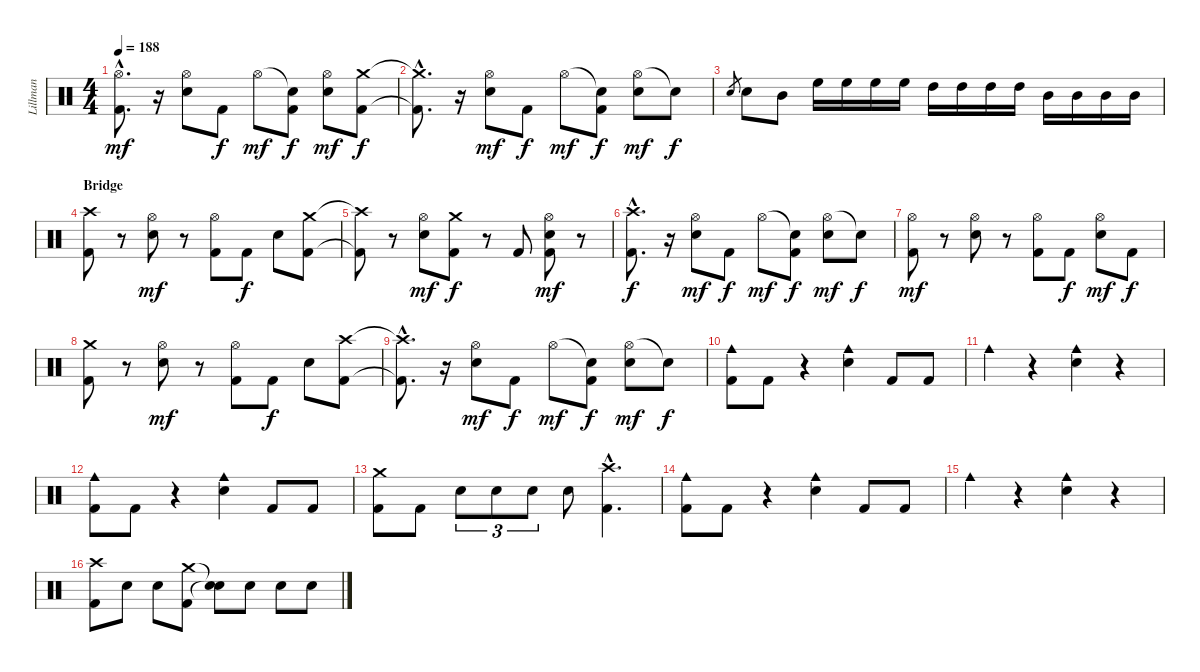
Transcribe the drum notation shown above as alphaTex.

\track ("Lillman" "Lillman") {instrument percussion}
\staff {score}
\articulation defaults
\ts (4 4)
\tempo 188
\clef neutral
\ks c
("Hi-Hat (open)"{hac} "Kick (hit) 2"{hac}).8{d dy mf} r.16 ("Hi-Hat (open)" "Snare (hit) 2").8 "Kick (hit) 2".8{dy f} "Hi-Hat (open)".8{dy mf} ("Snare (hit)"{t} "Kick (hit) 2").8{dy f} ("Hi-Hat (open)" "Snare (hit) 2").8{dy mf} ("Crash medium (hit)" "Kick (hit) 2").8{dy f} |
("Crash medium (hit)"{hac t} "Kick (hit) 2"{hac t}).8{d} r.16 ("Hi-Hat (open)" "Snare (hit) 2").8{dy mf} "Kick (hit) 2".8{dy f} "Hi-Hat (open)".8{dy mf} ("Snare (hit)"{t} "Kick (hit) 2").8{dy f} ("Hi-Hat (open)" "Snare (hit) 2").8{dy mf} "Snare (hit)"{t}.8{dy f} |
"Snare (hit) 2".8{gr} "Snare (hit) 2".8 "Mid Tom (hit)".8 "High Floor Tom (hit)".16 "High Floor Tom (hit)".16 "High Floor Tom (hit)".16 "High Floor Tom (hit)".16 "High Tom (hit)".16 "High Tom (hit)".16 "High Tom (hit)".16 "High Tom (hit)".16 "Mid Tom (hit)".16 "Mid Tom (hit)".16 "Mid Tom (hit)".16 "Mid Tom (hit)".16 |
\section ("" "Bridge")
("Crash high (hit)" "Kick (hit) 2").8 r.8 ("Hi-Hat (open)" "Snare (hit) 2").8{dy mf} r.8 ("Hi-Hat (open)" "Kick (hit) 2").8 "Kick (hit) 2".8{dy f} "Snare (hit) 2".8 ("Crash medium (hit)" "Kick (hit) 2").8 |
("Crash high (hit)"{t} "Kick (hit) 2"{t}).8 r.8 ("Hi-Hat (open)" "Snare (hit) 2").8{dy mf} ("Crash medium (hit)" "Kick (hit) 2").8{dy f} r.8 "Kick (hit) 2".8 ("Hi-Hat (open)" "Snare (hit) 2" "Kick (hit) 2").8{dy mf} r.8 |
("Crash high (hit)"{hac} "Kick (hit) 2"{hac}).8{d dy f} r.16 ("Hi-Hat (open)" "Snare (hit) 2").8{dy mf} "Kick (hit) 2".8{dy f} "Hi-Hat (open)".8{dy mf} ("Snare (hit)"{t} "Kick (hit) 2").8{dy f} ("Hi-Hat (open)" "Snare (hit) 2").8{dy mf} "Snare (hit)"{t}.8{dy f} |
("Hi-Hat (open)" "Kick (hit) 2").8{dy mf} r.8 ("Hi-Hat (open)" "Snare (hit) 2").8 r.8 ("Hi-Hat (open)" "Kick (hit) 2").8 "Kick (hit) 2".8{dy f} ("Hi-Hat (open)" "Snare (hit) 2").8{dy mf} "Kick (hit) 2".8{dy f} |
("Crash medium (hit)" "Kick (hit) 2").8 r.8 ("Hi-Hat (open)" "Snare (hit) 2").8{dy mf} r.8 ("Hi-Hat (open)" "Kick (hit) 2").8 "Kick (hit) 2".8{dy f} "Snare (hit) 2".8 ("Crash high (hit)" "Kick (hit) 2").8 |
("Crash high (hit)"{hac t} "Kick (hit) 2"{hac t}).8{d} r.16 ("Hi-Hat (open)" "Snare (hit) 2").8{dy mf} "Kick (hit) 2".8{dy f} "Hi-Hat (open)".8{dy mf} ("Snare (hit)"{t} "Kick (hit) 2").8{dy f} ("Hi-Hat (open)" "Snare (hit) 2").8{dy mf} "Snare (hit)"{t}.8{dy f} |
("Cowbell medium (hit)" "Kick (hit) 2").8 "Kick (hit) 2".8 r.4 ("Cowbell medium (hit)" "Snare (hit) 2").4 "Kick (hit) 2".8 "Kick (hit) 2".8 |
"Cowbell medium (hit)".4 r.4 ("Cowbell medium (hit)" "Snare (hit) 2").4 r.4 |
("Cowbell medium (hit)" "Kick (hit) 2").8 "Kick (hit) 2".8 r.4 ("Cowbell medium (hit)" "Snare (hit) 2").4 "Kick (hit) 2".8 "Kick (hit) 2".8 |
("Crash medium (hit)" "Kick (hit) 2").8 "Kick (hit) 2".8 "Snare (hit) 2".8{tu (3 2)} "Snare (hit) 2".8{tu (3 2)} "Snare (hit) 2".8{tu (3 2)} "Snare (hit) 2".8 ("Crash high (hit)"{hac} "Kick (hit) 2"{hac}).4{d} |
("Cowbell medium (hit)" "Kick (hit) 2").8 "Kick (hit) 2".8 r.4 ("Cowbell medium (hit)" "Snare (hit) 2").4 "Kick (hit) 2".8 "Kick (hit) 2".8 |
"Cowbell medium (hit)".4 r.4 ("Cowbell medium (hit)" "Snare (hit) 2").4 r.4 |
("Crash high (hit)" "Kick (hit) 2").8 "Snare (hit) 2".8 "Snare (hit) 2".8 ("Crash medium (hit)" "Kick (hit) 2").8 ("Snare (hit)"{t} "Snare (hit)"{t}).8 "Snare (hit) 2".8 "Snare (hit) 2".8 "Snare (hit) 2".8
